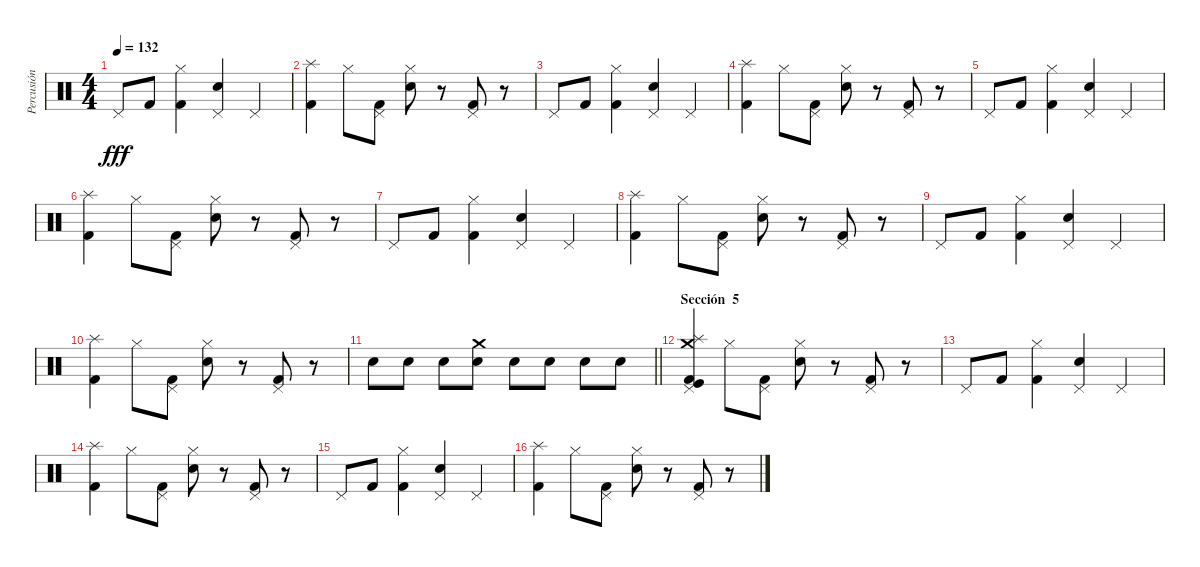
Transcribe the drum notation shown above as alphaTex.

\track ("Percusión" "Percusión") {instrument percussion}
\staff {score}
\articulation defaults
\ts (4 4)
\tempo 132
\clef neutral
\ks c "Pedal Hi-Hat (hit)".8{dy fff} "Kick (hit) 2".8
("Hi-Hat (closed)" "Kick (hit) 2").4 ("Pedal Hi-Hat (hit)" "Snare (hit) 2").4 "Pedal Hi-Hat (hit)".4 |
("Splash (hit)" "Kick (hit) 2").4 "Hi-Hat (closed)".8 ("Pedal Hi-Hat (hit)" "Kick (hit) 2").8 ("Hi-Hat (closed)" "Snare (hit) 2").8 r.8 ("Pedal Hi-Hat (hit)" "Kick (hit) 2").8 r.8 |
"Pedal Hi-Hat (hit)".8 "Kick (hit) 2".8 ("Hi-Hat (closed)" "Kick (hit) 2").4 ("Pedal Hi-Hat (hit)" "Snare (hit) 2").4 "Pedal Hi-Hat (hit)".4 |
("Splash (hit)" "Kick (hit) 2").4 "Hi-Hat (closed)".8 ("Pedal Hi-Hat (hit)" "Kick (hit) 2").8 ("Hi-Hat (closed)" "Snare (hit) 2").8 r.8 ("Pedal Hi-Hat (hit)" "Kick (hit) 2").8 r.8 |
"Pedal Hi-Hat (hit)".8 "Kick (hit) 2".8 ("Hi-Hat (closed)" "Kick (hit) 2").4 ("Pedal Hi-Hat (hit)" "Snare (hit) 2").4 "Pedal Hi-Hat (hit)".4 |
("Splash (hit)" "Kick (hit) 2").4 "Hi-Hat (closed)".8 ("Pedal Hi-Hat (hit)" "Kick (hit) 2").8 ("Hi-Hat (closed)" "Snare (hit) 2").8 r.8 ("Pedal Hi-Hat (hit)" "Kick (hit) 2").8 r.8 |
"Pedal Hi-Hat (hit)".8 "Kick (hit) 2".8 ("Hi-Hat (closed)" "Kick (hit) 2").4 ("Pedal Hi-Hat (hit)" "Snare (hit) 2").4 "Pedal Hi-Hat (hit)".4 |
("Splash (hit)" "Kick (hit) 2").4 "Hi-Hat (closed)".8 ("Pedal Hi-Hat (hit)" "Kick (hit) 2").8 ("Hi-Hat (closed)" "Snare (hit) 2").8 r.8 ("Pedal Hi-Hat (hit)" "Kick (hit) 2").8 r.8 |
"Pedal Hi-Hat (hit)".8 "Kick (hit) 2".8 ("Hi-Hat (closed)" "Kick (hit) 2").4 ("Pedal Hi-Hat (hit)" "Snare (hit) 2").4 "Pedal Hi-Hat (hit)".4 |
("Splash (hit)" "Kick (hit) 2").4 "Hi-Hat (closed)".8 ("Pedal Hi-Hat (hit)" "Kick (hit) 2").8 ("Hi-Hat (closed)" "Snare (hit) 2").8 r.8 ("Pedal Hi-Hat (hit)" "Kick (hit) 2").8 r.8 |
\barLineRight lightlight "Snare (hit) 2".8 "Snare (hit) 2".8 "Snare (hit) 2".8
("Crash medium (hit)" "Snare (hit) 2").8 "Snare (hit) 2".8 "Snare (hit) 2".8 "Snare (hit) 2".8 "Snare (hit) 2".8 |
\section ("" "Sección  5")
("Splash (hit)" "Crash medium (hit)" "Pedal Hi-Hat (hit)" "Kick (hit) 2" "Kick (hit)").4 "Hi-Hat (closed)".8 ("Pedal Hi-Hat (hit)" "Kick (hit) 2").8 ("Hi-Hat (closed)" "Snare (hit) 2").8 r.8 ("Pedal Hi-Hat (hit)" "Kick (hit) 2").8 r.8 |
"Pedal Hi-Hat (hit)".8 "Kick (hit) 2".8 ("Hi-Hat (closed)" "Kick (hit) 2").4 ("Pedal Hi-Hat (hit)" "Snare (hit) 2").4 "Pedal Hi-Hat (hit)".4 |
("Splash (hit)" "Kick (hit) 2").4 "Hi-Hat (closed)".8 ("Pedal Hi-Hat (hit)" "Kick (hit) 2").8 ("Hi-Hat (closed)" "Snare (hit) 2").8 r.8 ("Pedal Hi-Hat (hit)" "Kick (hit) 2").8 r.8 |
"Pedal Hi-Hat (hit)".8 "Kick (hit) 2".8 ("Hi-Hat (closed)" "Kick (hit) 2").4 ("Pedal Hi-Hat (hit)" "Snare (hit) 2").4 "Pedal Hi-Hat (hit)".4 |
("Splash (hit)" "Kick (hit) 2").4 "Hi-Hat (closed)".8 ("Pedal Hi-Hat (hit)" "Kick (hit) 2").8 ("Hi-Hat (closed)" "Snare (hit) 2").8 r.8 ("Pedal Hi-Hat (hit)" "Kick (hit) 2").8 r.8
